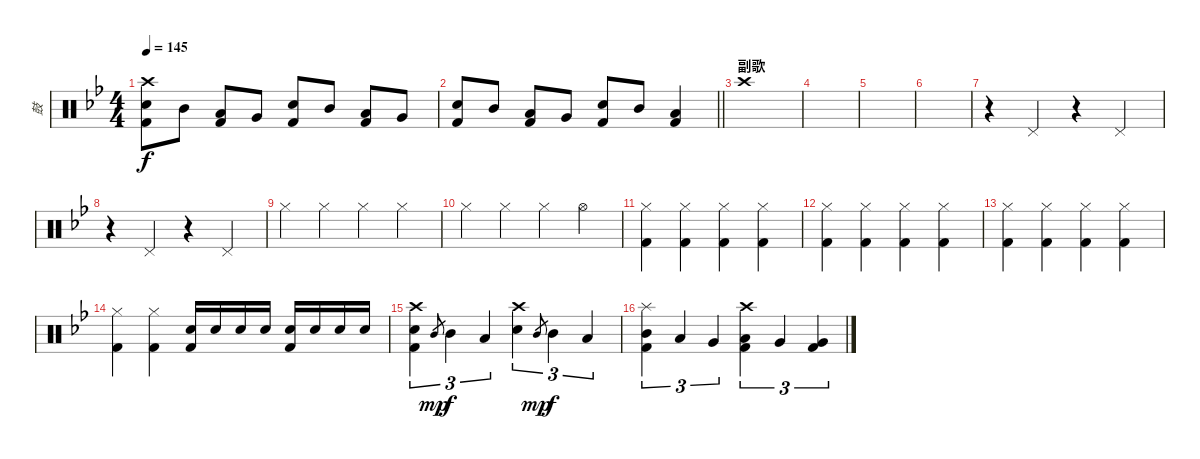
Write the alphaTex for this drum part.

\track ("鼓" "鼓") {instrument percussion}
\staff {score}
\articulation defaults
\ts (4 4)
\tempo 145
\clef neutral
\ks bb
("Crash high (hit)" "Snare (hit) 2" "Kick (hit) 2").8{dy f} "Mid Tom (hit)".8 ("Low Tom (hit)" "Kick (hit) 2").8 "Very Low Tom (hit)".8 ("Snare (hit) 2" "Kick (hit) 2").8 "Mid Tom (hit)".8 ("Low Tom (hit)" "Kick (hit) 2").8 "Very Low Tom (hit)".8 |
\barLineRight lightlight
("Snare (hit) 2" "Kick (hit) 2").8 "Mid Tom (hit)".8 ("Low Tom (hit)" "Kick (hit) 2").8 "Very Low Tom (hit)".8 ("Snare (hit) 2" "Kick (hit) 2").8 "Mid Tom (hit)".8 ("Low Tom (hit)" "Kick (hit) 2").4 |
\section ("" "副歌")
"Crash high (hit)".1 |
|
|
|
r.4 "Pedal Hi-Hat (hit)".4 r.4 "Pedal Hi-Hat (hit)".4 |
r.4 "Pedal Hi-Hat (hit)".4 r.4 "Pedal Hi-Hat (hit)".4 |
"Hi-Hat (closed)".4 "Hi-Hat (closed)".4 "Hi-Hat (closed)".4 "Hi-Hat (closed)".4 |
"Hi-Hat (closed)".4 "Hi-Hat (closed)".4 "Hi-Hat (closed)".4 "Hi-Hat (open)".4 |
("Hi-Hat (closed)" "Kick (hit) 2").4 ("Hi-Hat (closed)" "Kick (hit) 2").4 ("Hi-Hat (closed)" "Kick (hit) 2").4 ("Hi-Hat (closed)" "Kick (hit) 2").4 |
("Hi-Hat (closed)" "Kick (hit) 2").4 ("Hi-Hat (closed)" "Kick (hit) 2").4 ("Hi-Hat (closed)" "Kick (hit) 2").4 ("Hi-Hat (closed)" "Kick (hit) 2").4 |
("Hi-Hat (closed)" "Kick (hit) 2").4 ("Hi-Hat (closed)" "Kick (hit) 2").4 ("Hi-Hat (closed)" "Kick (hit) 2").4 ("Hi-Hat (closed)" "Kick (hit) 2").4 |
("Hi-Hat (closed)" "Kick (hit) 2").4 ("Hi-Hat (closed)" "Kick (hit) 2").4 ("Snare (hit) 2" "Kick (hit) 2").16 "Snare (hit) 2".16 "Snare (hit) 2".16 "Snare (hit) 2".16 ("Snare (hit) 2" "Kick (hit) 2").16 "Snare (hit) 2".16 "Snare (hit) 2".16 "Snare (hit) 2".16 |
("Crash high (hit)" "Snare (hit) 2" "Kick (hit) 2").4{tu (3 2)} "Mid Tom (hit)".8{gr dy mp} "Mid Tom (hit)".4{tu (3 2) dy f} "Low Tom (hit)".4{tu (3 2)} ("Crash high (hit)" "Snare (hit) 2").4{tu (3 2)} "Mid Tom (hit)".8{gr dy mp} "Mid Tom (hit)".4{tu (3 2) dy f} "Low Tom (hit)".4{tu (3 2)} |
("Splash (hit)" "Mid Tom (hit)" "Kick (hit) 2").4{tu (3 2)} "Low Tom (hit)".4{tu (3 2)} "Very Low Tom (hit)".4{tu (3 2)} ("Crash high (hit)" "Low Tom (hit)" "Kick (hit) 2").4{tu (3 2)} "Very Low Tom (hit)".4{tu (3 2)} ("Very Low Tom (hit)" "Kick (hit) 2").4{tu (3 2)}
